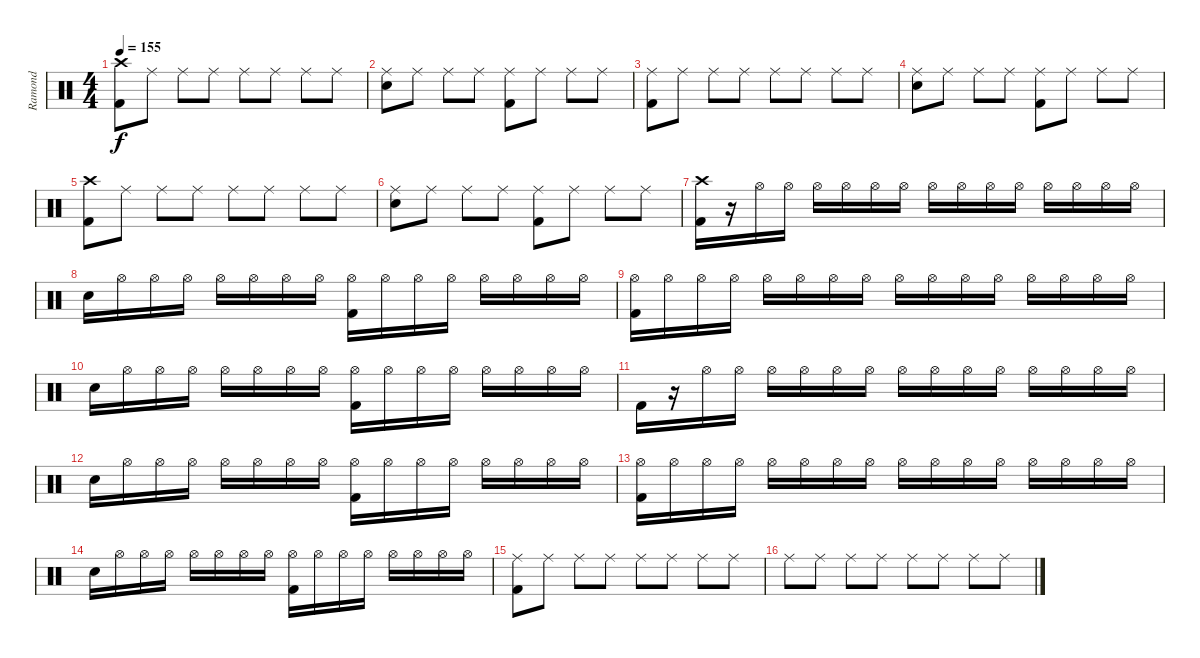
\track ("Ramond" "Ramond") {instrument percussion}
\staff {score}
\articulation defaults
\ts (4 4)
\tempo 155
\clef neutral
\ks c
("Crash high (hit)" "Kick (hit) 2").8{dy f} "Ride (middle)".8 "Ride (middle)".8 "Ride (middle)".8 "Ride (middle)".8 "Ride (middle)".8 "Ride (middle)".8 "Ride (middle)".8 |
("Ride (middle)" "Electric Snare (hit)").8 "Ride (middle)".8 "Ride (middle)".8 "Ride (middle)".8 ("Ride (middle)" "Kick (hit) 2").8 "Ride (middle)".8 "Ride (middle)".8 "Ride (middle)".8 |
("Ride (middle)" "Kick (hit) 2").8 "Ride (middle)".8 "Ride (middle)".8 "Ride (middle)".8 "Ride (middle)".8 "Ride (middle)".8 "Ride (middle)".8 "Ride (middle)".8 |
("Ride (middle)" "Electric Snare (hit)").8 "Ride (middle)".8 "Ride (middle)".8 "Ride (middle)".8 ("Ride (middle)" "Kick (hit) 2").8 "Ride (middle)".8 "Ride (middle)".8 "Ride (middle)".8 |
("Crash high (hit)" "Kick (hit) 2").8 "Ride (middle)".8 "Ride (middle)".8 "Ride (middle)".8 "Ride (middle)".8 "Ride (middle)".8 "Ride (middle)".8 "Ride (middle)".8 |
("Ride (middle)" "Electric Snare (hit)").8 "Ride (middle)".8 "Ride (middle)".8 "Ride (middle)".8 ("Ride (middle)" "Kick (hit) 2").8 "Ride (middle)".8 "Ride (middle)".8 "Ride (middle)".8 |
("Crash high (hit)" "Kick (hit) 2").16 r.16 "Hi-Hat (open)".16 "Hi-Hat (open)".16 "Hi-Hat (open)".16 "Hi-Hat (open)".16 "Hi-Hat (open)".16 "Hi-Hat (open)".16 "Hi-Hat (open)".16 "Hi-Hat (open)".16 "Hi-Hat (open)".16 "Hi-Hat (open)".16 "Hi-Hat (open)".16 "Hi-Hat (open)".16 "Hi-Hat (open)".16 "Hi-Hat (open)".16 |
"Electric Snare (hit)".16 "Hi-Hat (open)".16 "Hi-Hat (open)".16 "Hi-Hat (open)".16 "Hi-Hat (open)".16 "Hi-Hat (open)".16 "Hi-Hat (open)".16 "Hi-Hat (open)".16 ("Hi-Hat (open)" "Kick (hit) 2").16 "Hi-Hat (open)".16 "Hi-Hat (open)".16 "Hi-Hat (open)".16 "Hi-Hat (open)".16 "Hi-Hat (open)".16 "Hi-Hat (open)".16 "Hi-Hat (open)".16 |
("Hi-Hat (open)" "Kick (hit) 2").16 "Hi-Hat (open)".16 "Hi-Hat (open)".16 "Hi-Hat (open)".16 "Hi-Hat (open)".16 "Hi-Hat (open)".16 "Hi-Hat (open)".16 "Hi-Hat (open)".16 "Hi-Hat (open)".16 "Hi-Hat (open)".16 "Hi-Hat (open)".16 "Hi-Hat (open)".16 "Hi-Hat (open)".16 "Hi-Hat (open)".16 "Hi-Hat (open)".16 "Hi-Hat (open)".16 |
"Electric Snare (hit)".16 "Hi-Hat (open)".16 "Hi-Hat (open)".16 "Hi-Hat (open)".16 "Hi-Hat (open)".16 "Hi-Hat (open)".16 "Hi-Hat (open)".16 "Hi-Hat (open)".16 ("Hi-Hat (open)" "Kick (hit) 2").16 "Hi-Hat (open)".16 "Hi-Hat (open)".16 "Hi-Hat (open)".16 "Hi-Hat (open)".16 "Hi-Hat (open)".16 "Hi-Hat (open)".16 "Hi-Hat (open)".16 |
"Kick (hit) 2".16 r.16 "Hi-Hat (open)".16 "Hi-Hat (open)".16 "Hi-Hat (open)".16 "Hi-Hat (open)".16 "Hi-Hat (open)".16 "Hi-Hat (open)".16 "Hi-Hat (open)".16 "Hi-Hat (open)".16 "Hi-Hat (open)".16 "Hi-Hat (open)".16 "Hi-Hat (open)".16 "Hi-Hat (open)".16 "Hi-Hat (open)".16 "Hi-Hat (open)".16 |
"Electric Snare (hit)".16 "Hi-Hat (open)".16 "Hi-Hat (open)".16 "Hi-Hat (open)".16 "Hi-Hat (open)".16 "Hi-Hat (open)".16 "Hi-Hat (open)".16 "Hi-Hat (open)".16 ("Hi-Hat (open)" "Kick (hit) 2").16 "Hi-Hat (open)".16 "Hi-Hat (open)".16 "Hi-Hat (open)".16 "Hi-Hat (open)".16 "Hi-Hat (open)".16 "Hi-Hat (open)".16 "Hi-Hat (open)".16 |
("Hi-Hat (open)" "Kick (hit) 2").16 "Hi-Hat (open)".16 "Hi-Hat (open)".16 "Hi-Hat (open)".16 "Hi-Hat (open)".16 "Hi-Hat (open)".16 "Hi-Hat (open)".16 "Hi-Hat (open)".16 "Hi-Hat (open)".16 "Hi-Hat (open)".16 "Hi-Hat (open)".16 "Hi-Hat (open)".16 "Hi-Hat (open)".16 "Hi-Hat (open)".16 "Hi-Hat (open)".16 "Hi-Hat (open)".16 |
"Electric Snare (hit)".16 "Hi-Hat (open)".16 "Hi-Hat (open)".16 "Hi-Hat (open)".16 "Hi-Hat (open)".16 "Hi-Hat (open)".16 "Hi-Hat (open)".16 "Hi-Hat (open)".16 ("Hi-Hat (open)" "Kick (hit) 2").16 "Hi-Hat (open)".16 "Hi-Hat (open)".16 "Hi-Hat (open)".16 "Hi-Hat (open)".16 "Hi-Hat (open)".16 "Hi-Hat (open)".16 "Hi-Hat (open)".16 |
("Ride (middle)" "Kick (hit) 2").8 "Ride (middle)".8 "Ride (middle)".8 "Ride (middle)".8 "Ride (middle)".8 "Ride (middle)".8 "Ride (middle)".8 "Ride (middle)".8 |
"Ride (middle)".8 "Ride (middle)".8 "Ride (middle)".8 "Ride (middle)".8 "Ride (middle)".8 "Ride (middle)".8 "Ride (middle)".8 "Ride (middle)".8
